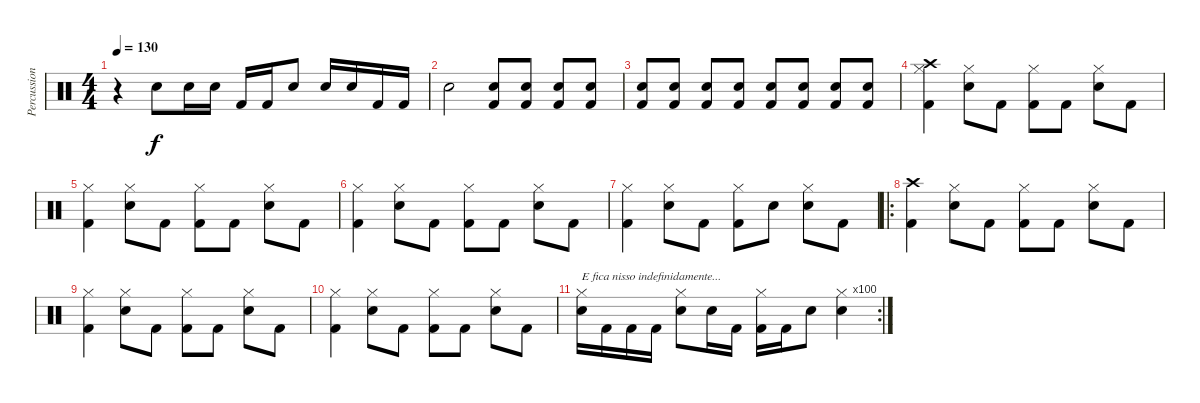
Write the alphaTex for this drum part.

\track ("Percussion" "Percussion") {instrument percussion}
\staff {score}
\articulation defaults
\ts (4 4)
\tempo 130
\clef neutral
\ks c
r.4{dy f} "Electric Snare (hit)".8 "Electric Snare (hit)".16 "Electric Snare (hit)".16 "Kick (hit) 2".16 "Kick (hit) 2".16 "Electric Snare (hit)".8 "Electric Snare (hit)".16 "Electric Snare (hit)".16 "Kick (hit) 2".16 "Kick (hit) 2".16 |
"Electric Snare (hit)".2 ("Electric Snare (hit)" "Kick (hit) 2").8{volume 0} ("Electric Snare (hit)" "Kick (hit) 2").8{volume 14} ("Electric Snare (hit)" "Kick (hit) 2").8 ("Electric Snare (hit)" "Kick (hit) 2").8 |
("Electric Snare (hit)" "Kick (hit) 2").8 ("Electric Snare (hit)" "Kick (hit) 2").8 ("Electric Snare (hit)" "Kick (hit) 2").8 ("Electric Snare (hit)" "Kick (hit) 2").8 ("Electric Snare (hit)" "Kick (hit) 2").8 ("Electric Snare (hit)" "Kick (hit) 2").8 ("Electric Snare (hit)" "Kick (hit) 2").8 ("Electric Snare (hit)" "Kick (hit) 2").8 |
("Hi-Hat (closed)" "Crash high (hit)" "Kick (hit) 2").4 ("Hi-Hat (closed)" "Electric Snare (hit)").8 "Kick (hit) 2".8 ("Hi-Hat (closed)" "Kick (hit) 2").8 "Kick (hit) 2".8 ("Hi-Hat (closed)" "Electric Snare (hit)").8 "Kick (hit) 2".8 |
("Hi-Hat (closed)" "Kick (hit) 2").4 ("Hi-Hat (closed)" "Electric Snare (hit)").8 "Kick (hit) 2".8 ("Hi-Hat (closed)" "Kick (hit) 2").8 "Kick (hit) 2".8 ("Hi-Hat (closed)" "Electric Snare (hit)").8 "Kick (hit) 2".8 |
("Hi-Hat (closed)" "Kick (hit) 2").4 ("Hi-Hat (closed)" "Electric Snare (hit)").8 "Kick (hit) 2".8 ("Hi-Hat (closed)" "Kick (hit) 2").8 "Kick (hit) 2".8 ("Hi-Hat (closed)" "Electric Snare (hit)").8 "Kick (hit) 2".8 |
("Hi-Hat (closed)" "Kick (hit) 2").4 ("Hi-Hat (closed)" "Electric Snare (hit)").8 "Kick (hit) 2".8 ("Hi-Hat (closed)" "Kick (hit) 2").8 "Electric Snare (hit)".8 ("Hi-Hat (closed)" "Electric Snare (hit)").8 "Kick (hit) 2".8 |
\ro
("Crash high (hit)" "Kick (hit) 2").4 ("Hi-Hat (closed)" "Electric Snare (hit)").8 "Kick (hit) 2".8 ("Hi-Hat (closed)" "Kick (hit) 2").8 "Kick (hit) 2".8 ("Hi-Hat (closed)" "Electric Snare (hit)").8 "Kick (hit) 2".8 |
("Hi-Hat (closed)" "Kick (hit) 2").4 ("Hi-Hat (closed)" "Electric Snare (hit)").8 "Kick (hit) 2".8 ("Hi-Hat (closed)" "Kick (hit) 2").8 "Kick (hit) 2".8 ("Hi-Hat (closed)" "Electric Snare (hit)").8 "Kick (hit) 2".8 |
("Hi-Hat (closed)" "Kick (hit) 2").4 ("Hi-Hat (closed)" "Electric Snare (hit)").8 "Kick (hit) 2".8 ("Hi-Hat (closed)" "Kick (hit) 2").8 "Kick (hit) 2".8 ("Hi-Hat (closed)" "Electric Snare (hit)").8 "Kick (hit) 2".8 |
\rc 100
("Hi-Hat (closed)" "Electric Snare (hit)").16{txt "E fica nisso indefinidamente..."} "Kick (hit) 2".16 "Kick (hit) 2".16 "Kick (hit) 2".16 ("Hi-Hat (closed)" "Electric Snare (hit)").8 "Electric Snare (hit)".16 "Kick (hit) 2".16 ("Hi-Hat (closed)" "Kick (hit) 2").16 "Kick (hit) 2".16 "Electric Snare (hit)".8 ("Hi-Hat (closed)" "Electric Snare (hit)").4
